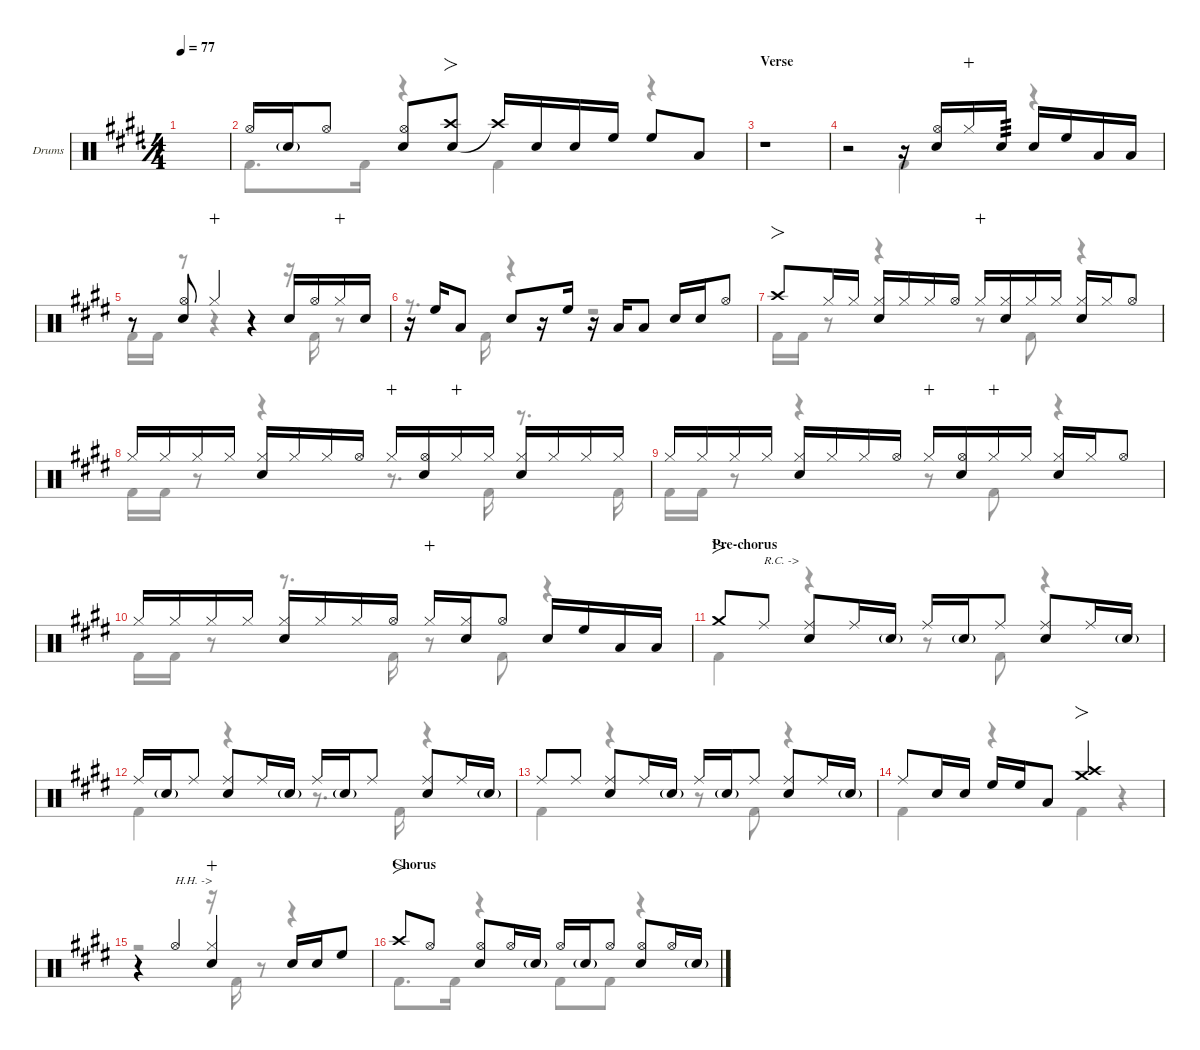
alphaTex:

\defaultSystemsLayout 4
\hideDynamics
\bracketExtendMode nobrackets
\firstSystemTrackNameOrientation horizontal
\track ("Drums" "Drums") {defaultSystemsLayout 4 instrument percussion}
\staff {score}
\articulation defaults
\voice
\ts (4 4)
\tempo 77
\clef neutral
\simile simple
\ks e
|
\simile none "Hi-Hat (open)"{acc forcenatural}.16{dy f} "Snare (hit) 2"{g acc forcenatural}.16{dy mf} "Hi-Hat (open)"{acc forcenatural}.8
("Hi-Hat (open)"{acc forcenatural} "Snare (hit) 2"{acc forcenatural}).8{dy f} ("Snare (hit) 2"{acc forcenatural} "Crash high (hit)"{acc forcenatural}).8{fo} "Crash high (hit)"{t acc forcenatural}.16 "Snare (hit) 2"{acc forcenatural}.16 "Snare (hit) 2"{acc forcenatural}.16{dy mf} "High Floor Tom (hit)"{acc forcenatural}.16{dy f} "High Floor Tom (hit)"{acc forcenatural}.8 "Low Tom (hit)"{acc forcenatural}.8 |
\section ("" "Verse")
r.1 |
r.2 r.16 ("Hi-Hat (open)"{acc forcenatural} "Snare (hit) 2"{acc forcenatural}).16 "Hi-Hat (closed)"{acc forcenatural}.16{dy mp wahc} "Snare (hit) 2"{acc forcenatural}.16{tp 3 dy f} "Snare (hit) 2"{acc forcenatural}.16 "High Floor Tom (hit)"{acc forcenatural}.16 "Low Tom (hit)"{acc forcenatural}.16 "Low Tom (hit)"{acc forcenatural}.16 |
r.8 ("Hi-Hat (open)"{acc forcenatural} "Snare (hit) 2"{acc forcenatural}).8 "Hi-Hat (closed)"{acc forcenatural}.4{dy mp wahc} r.4 "Snare (hit) 2"{acc forcenatural}.16{dy f} "Hi-Hat (open)"{acc forcenatural}.16 "Hi-Hat (closed)"{acc forcenatural}.16{dy mp wahc} "Snare (hit) 2"{acc forcenatural}.16{dy f} |
r.16 "High Floor Tom (hit)"{acc forcenatural}.16 "Low Tom (hit)"{acc forcenatural}.8 "Snare (hit) 2"{acc forcenatural}.8 r.16 "High Floor Tom (hit)"{acc forcenatural}.16 r.16 "Low Tom (hit)"{acc forcenatural}.16 "Low Tom (hit)"{acc forcenatural}.8 "Snare (hit) 2"{acc forcenatural}.16 "Snare (hit) 2"{acc forcenatural}.16{dy mf} "Hi-Hat (open)"{acc forcenatural}.8{dy f} |
"Crash high (hit)"{acc forcenatural}.8{fo} "Hi-Hat (closed)"{acc forcenatural}.16{dy mf} "Hi-Hat (closed)"{acc forcenatural}.16{dy mp} ("Hi-Hat (closed)"{acc forcenatural} "Snare (hit) 2"{acc forcenatural}).16{dy f} "Hi-Hat (closed)"{acc forcenatural}.16{dy mp} "Hi-Hat (closed)"{acc forcenatural}.16{dy mf} "Hi-Hat (open)"{acc forcenatural}.16{dy f} "Hi-Hat (closed)"{acc forcenatural}.16{dy mp wahc} ("Hi-Hat (closed)"{acc forcenatural} "Snare (hit) 2"{acc forcenatural}).16{dy f} "Hi-Hat (closed)"{acc forcenatural}.16{dy mf} "Hi-Hat (closed)"{acc forcenatural}.16{dy mp} ("Hi-Hat (closed)"{acc forcenatural} "Snare (hit) 2"{acc forcenatural}).16{dy f} "Hi-Hat (closed)"{acc forcenatural}.16{dy mp} "Hi-Hat (open)"{acc forcenatural}.8{dy f} |
"Hi-Hat (closed)"{acc forcenatural}.16 "Hi-Hat (closed)"{acc forcenatural}.16{dy mp} "Hi-Hat (closed)"{acc forcenatural}.16{dy mf} "Hi-Hat (closed)"{acc forcenatural}.16{dy mp} ("Hi-Hat (closed)"{acc forcenatural} "Snare (hit) 2"{acc forcenatural}).16{dy f} "Hi-Hat (closed)"{acc forcenatural}.16{dy mp} "Hi-Hat (closed)"{acc forcenatural}.16{dy mf} "Hi-Hat (open)"{acc forcenatural}.16{dy f} "Hi-Hat (closed)"{acc forcenatural}.16{dy mp wahc} ("Hi-Hat (open)"{acc forcenatural} "Snare (hit) 2"{acc forcenatural}).16{dy f} "Hi-Hat (closed)"{acc forcenatural}.16{dy mp wahc} "Hi-Hat (closed)"{acc forcenatural}.16 ("Hi-Hat (closed)"{acc forcenatural} "Snare (hit) 2"{acc forcenatural}).16{dy f} "Hi-Hat (closed)"{acc forcenatural}.16{dy mp} "Hi-Hat (closed)"{acc forcenatural}.16{dy mf} "Hi-Hat (closed)"{acc forcenatural}.16{dy mp} |
"Hi-Hat (closed)"{acc forcenatural}.16{dy f} "Hi-Hat (closed)"{acc forcenatural}.16{dy mp} "Hi-Hat (closed)"{acc forcenatural}.16{dy mf} "Hi-Hat (closed)"{acc forcenatural}.16{dy mp} ("Hi-Hat (closed)"{acc forcenatural} "Snare (hit) 2"{acc forcenatural}).16{dy f} "Hi-Hat (closed)"{acc forcenatural}.16{dy mp} "Hi-Hat (closed)"{acc forcenatural}.16{dy mf} "Hi-Hat (open)"{acc forcenatural}.16{dy f} "Hi-Hat (closed)"{acc forcenatural}.16{dy mp wahc} ("Hi-Hat (open)"{acc forcenatural} "Snare (hit) 2"{acc forcenatural}).16{dy f} "Hi-Hat (closed)"{acc forcenatural}.16{dy mp wahc} "Hi-Hat (closed)"{acc forcenatural}.16 ("Hi-Hat (closed)"{acc forcenatural} "Snare (hit) 2"{acc forcenatural}).16{dy f} "Hi-Hat (closed)"{acc forcenatural}.16{dy mp} "Hi-Hat (open)"{acc forcenatural}.8{dy f} |
"Hi-Hat (closed)"{acc forcenatural}.16 "Hi-Hat (closed)"{acc forcenatural}.16{dy mp} "Hi-Hat (closed)"{acc forcenatural}.16{dy mf} "Hi-Hat (closed)"{acc forcenatural}.16{dy mp} ("Hi-Hat (closed)"{acc forcenatural} "Snare (hit) 2"{acc forcenatural}).16{dy f} "Hi-Hat (closed)"{acc forcenatural}.16{dy mp} "Hi-Hat (closed)"{acc forcenatural}.16{dy mf} "Hi-Hat (open)"{acc forcenatural}.16{dy f} "Hi-Hat (closed)"{acc forcenatural}.16{dy mp wahc} ("Hi-Hat (closed)"{acc forcenatural} "Snare (hit) 2"{acc forcenatural}).16{dy f} "Hi-Hat (open)"{acc forcenatural}.8 "Snare (hit) 2"{acc forcenatural}.16 "High Floor Tom (hit)"{acc forcenatural}.16 "Low Tom (hit)"{acc forcenatural}.16 "Low Tom (hit)"{acc forcenatural}.16 |
\section ("" "Pre-chorus")
"Crash medium (hit)"{acc forcenatural}.8{fo} "Ride (middle)"{acc forcenatural}.8{txt "R.C. ->" dy mf} ("Ride (middle)"{acc forcenatural} "Snare (hit) 2"{acc forcenatural}).8{dy f} "Ride (middle)"{acc forcenatural}.16{dy mf} "Snare (hit) 2"{g acc forcenatural}.16 "Ride (middle)"{acc forcenatural}.16{dy f} "Snare (hit) 2"{g acc forcenatural}.16{dy mf} "Ride (middle)"{acc forcenatural}.8 ("Ride (middle)"{acc forcenatural} "Snare (hit) 2"{acc forcenatural}).8{dy f} "Ride (middle)"{acc forcenatural}.16{dy mf} "Snare (hit) 2"{g acc forcenatural}.16 |
"Ride (middle)"{acc forcenatural}.16{dy f} "Snare (hit) 2"{g acc forcenatural}.16{dy mf} "Ride (middle)"{acc forcenatural}.8 ("Ride (middle)"{acc forcenatural} "Snare (hit) 2"{acc forcenatural}).8{dy f} "Ride (middle)"{acc forcenatural}.16{dy mf} "Snare (hit) 2"{g acc forcenatural}.16 "Ride (middle)"{acc forcenatural}.16{dy f} "Snare (hit) 2"{g acc forcenatural}.16{dy mf} "Ride (middle)"{acc forcenatural}.8 ("Ride (middle)"{acc forcenatural} "Snare (hit) 2"{acc forcenatural}).8{dy f} "Ride (middle)"{acc forcenatural}.16{dy mf} "Snare (hit) 2"{g acc forcenatural}.16 |
"Ride (middle)"{acc forcenatural}.8{dy f} "Ride (middle)"{acc forcenatural}.8{dy mf} ("Ride (middle)"{acc forcenatural} "Snare (hit) 2"{acc forcenatural}).8{dy f} "Ride (middle)"{acc forcenatural}.16{dy mf} "Snare (hit) 2"{g acc forcenatural}.16 "Ride (middle)"{acc forcenatural}.16{dy f} "Snare (hit) 2"{g acc forcenatural}.16{dy mf} "Ride (middle)"{acc forcenatural}.8 ("Ride (middle)"{acc forcenatural} "Snare (hit) 2"{acc forcenatural}).8{dy f} "Ride (middle)"{acc forcenatural}.16{dy mf} "Snare (hit) 2"{g acc forcenatural}.16 |
"Ride (middle)"{acc forcenatural}.8{dy f} "Snare (hit) 2"{acc forcenatural}.16 "Snare (hit) 2"{acc forcenatural}.16{dy mf} "High Floor Tom (hit)"{acc forcenatural}.16{dy f} "High Floor Tom (hit)"{acc forcenatural}.16 "Low Tom (hit)"{acc forcenatural}.8 ("Crash high (hit)"{acc forcenatural} "Crash medium (hit)"{acc forcenatural}).2{fo} |
r.4 "Hi-Hat (open)"{acc forcenatural}.4{txt "H.H. ->"} ("Hi-Hat (closed)"{acc forcenatural} "Snare (hit) 2"{acc forcenatural}).4{wahc} "Snare (hit) 2"{acc forcenatural}.16 "Snare (hit) 2"{acc forcenatural}.16{dy mf} "High Floor Tom (hit)"{acc forcenatural}.8{dy f} |
\section ("" "Chorus")
"Crash high (hit)"{acc forcenatural}.8{fo} "Hi-Hat (open)"{acc forcenatural}.8{dy mf} ("Hi-Hat (open)"{acc forcenatural} "Snare (hit) 2"{acc forcenatural}).8{dy f} "Hi-Hat (open)"{acc forcenatural}.16{dy mf} "Snare (hit) 2"{g acc forcenatural}.16 "Hi-Hat (open)"{acc forcenatural}.16{dy f} "Snare (hit) 2"{g acc forcenatural}.16{dy mf} "Hi-Hat (open)"{acc forcenatural}.8 ("Hi-Hat (open)"{acc forcenatural} "Snare (hit) 2"{acc forcenatural}).8{dy f} "Hi-Hat (open)"{acc forcenatural}.16{dy mf} "Snare (hit) 2"{g acc forcenatural}.16
\voice
\clef neutral
\ottava regular
\simile simple
\ks e
|
\simile none "Kick (hit) 2"{acc forcenatural}.8{d} "Kick (hit) 2"{acc forcenatural}.16
r.4 "Kick (hit) 2"{acc forcenatural}.4 r.4 |
r.1 |
r.2 "Kick (hit) 2"{acc forcenatural}.4 r.4 |
"Kick (hit) 2"{acc forcenatural}.16 "Kick (hit) 2"{acc forcenatural}.16 r.8 r.4 r.4 r.16 "Kick (hit) 2"{acc forcenatural}.16 r.8 |
r.8{d} "Kick (hit) 2"{acc forcenatural}.16 r.4 r.2 |
"Kick (hit) 2"{acc forcenatural}.16 "Kick (hit) 2"{acc forcenatural}.16 r.8 r.4 r.8 "Kick (hit) 2"{acc forcenatural}.8 r.4 |
"Kick (hit) 2"{acc forcenatural}.16 "Kick (hit) 2"{acc forcenatural}.16 r.8 r.4 r.8{d} "Kick (hit) 2"{acc forcenatural}.16 r.8{d} "Kick (hit) 2"{acc forcenatural}.16 |
"Kick (hit) 2"{acc forcenatural}.16 "Kick (hit) 2"{acc forcenatural}.16 r.8 r.4 r.8 "Kick (hit) 2"{acc forcenatural}.8 r.4 |
"Kick (hit) 2"{acc forcenatural}.16 "Kick (hit) 2"{acc forcenatural}.16 r.8 r.8{d} "Kick (hit) 2"{acc forcenatural}.16 r.8 "Kick (hit) 2"{acc forcenatural}.8 r.4 |
"Kick (hit) 2"{acc forcenatural}.4 r.4 r.8 "Kick (hit) 2"{acc forcenatural}.8 r.4 |
"Kick (hit) 2"{acc forcenatural}.4 r.4 r.8{d} "Kick (hit) 2"{acc forcenatural}.16 r.4 |
"Kick (hit) 2"{acc forcenatural}.4 r.4 r.8 "Kick (hit) 2"{acc forcenatural}.8 r.4 |
"Kick (hit) 2"{acc forcenatural}.4 r.4 "Kick (hit) 2"{acc forcenatural}.4 r.4 |
r.2 r.16 "Kick (hit) 2"{acc forcenatural}.16 r.8 r.4 |
"Kick (hit) 2"{acc forcenatural}.8{d} "Kick (hit) 2"{acc forcenatural}.16 r.4 "Kick (hit) 2"{acc forcenatural}.8 "Kick (hit) 2"{acc forcenatural}.8 r.4
